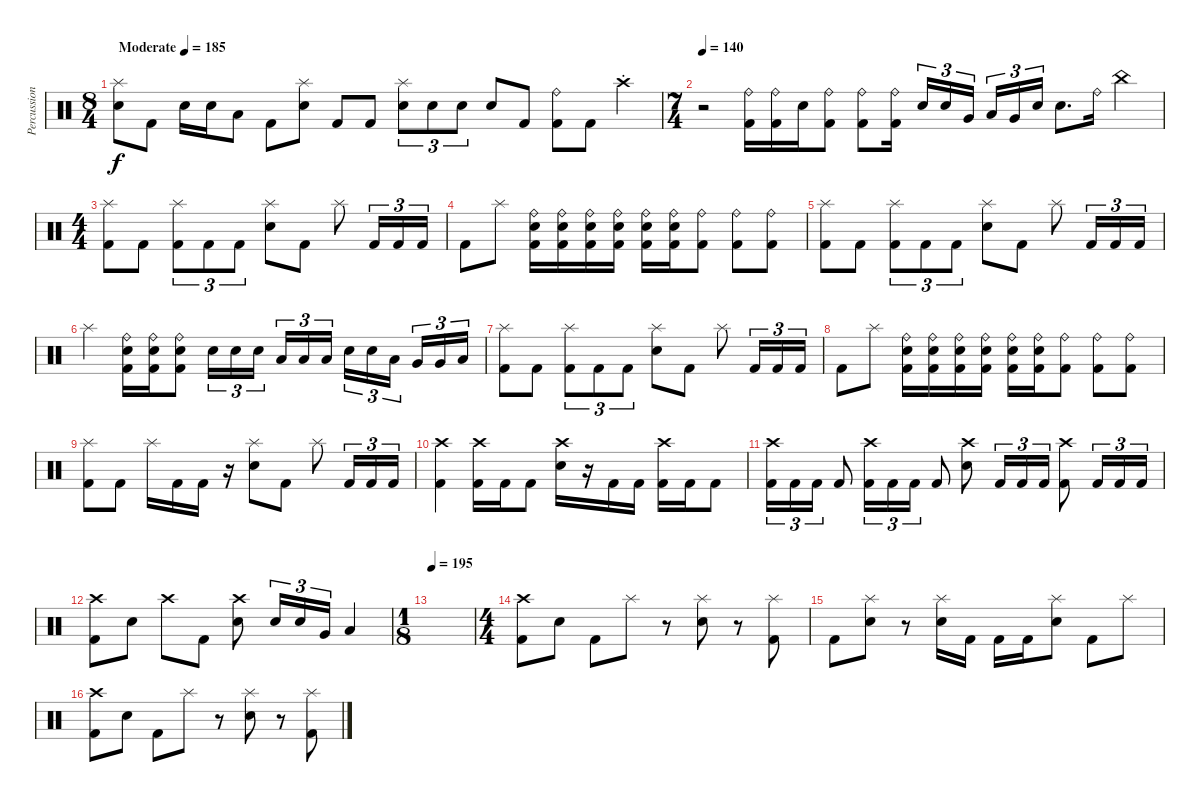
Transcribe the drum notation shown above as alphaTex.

\track ("Percussion" "Percussion") {instrument percussion}
\staff {score}
\articulation defaults
\ts (8 4)
\tempo (185 "Moderate")
\clef neutral
\ks c
("Splash (hit)" "Electric Snare (hit)").8{dy f} "Kick (hit) 2".8 "Electric Snare (hit)".16 "Electric Snare (hit)".16 "Low Floor Tom (hit)".8 "Kick (hit) 2".8 ("Splash (hit)" "Electric Snare (hit)").8 "Kick (hit) 2".8 "Kick (hit) 2".8 ("Splash (hit)" "Electric Snare (hit)").8{tu (3 2)} "Electric Snare (hit)".8{tu (3 2)} "Electric Snare (hit)".8{tu (3 2)} "Electric Snare (hit)".8 "Kick (hit) 2".8 ("Ride (bell)" "Kick (hit) 2").8 "Kick (hit) 2".8 "Crash high (hit)"{st}.4 |
\ts (7 4)
\tempo 140
r.2 ("Ride (bell)" "Kick (hit) 2").16 ("Ride (bell)" "Kick (hit) 2").16 "Electric Snare (hit)".16 ("Ride (bell)" "Kick (hit) 2").8 ("Ride (bell)" "Kick (hit) 2").8 ("Ride (bell)" "Kick (hit) 2").16 "Electric Snare (hit)".16{tu (3 2)} "Electric Snare (hit)".16{tu (3 2)} "Very Low Tom (hit)".16{tu (3 2) beam splitsecondary} "Low Floor Tom (hit)".16{tu (3 2)} "Very Low Tom (hit)".16{tu (3 2)} "Electric Snare (hit)".16{tu (3 2)} "Electric Snare (hit)".8{d} "Ride (bell)".16 "China (hit)".4 |
\ts (4 4)
("Splash (hit)" "Kick (hit) 2").8 "Kick (hit) 2".8 ("Splash (hit)" "Kick (hit) 2").8{tu (3 2)} "Kick (hit) 2".8{tu (3 2)} "Kick (hit) 2".8{tu (3 2)} ("Splash (hit)" "Electric Snare (hit)").8 "Kick (hit) 2".8 "Splash (hit)".8 "Kick (hit) 2".16{tu (3 2)} "Kick (hit) 2".16{tu (3 2)} "Kick (hit) 2".16{tu (3 2)} |
"Kick (hit) 2".8 "Splash (hit)".8 ("Ride (bell)" "Electric Snare (hit)" "Kick (hit) 2").16 ("Ride (bell)" "Electric Snare (hit)" "Kick (hit) 2").16 ("Ride (bell)" "Electric Snare (hit)" "Kick (hit) 2").16 ("Ride (bell)" "Electric Snare (hit)" "Kick (hit) 2").16 ("Ride (bell)" "Electric Snare (hit)" "Kick (hit) 2").16 ("Ride (bell)" "Electric Snare (hit)" "Kick (hit) 2").16 ("Ride (bell)" "Kick (hit) 2").8 ("Ride (bell)" "Kick (hit) 2").8 ("Ride (bell)" "Kick (hit) 2").8 |
("Splash (hit)" "Kick (hit) 2").8 "Kick (hit) 2".8 ("Splash (hit)" "Kick (hit) 2").8{tu (3 2)} "Kick (hit) 2".8{tu (3 2)} "Kick (hit) 2".8{tu (3 2)} ("Splash (hit)" "Electric Snare (hit)").8 "Kick (hit) 2".8 "Splash (hit)".8 "Kick (hit) 2".16{tu (3 2)} "Kick (hit) 2".16{tu (3 2)} "Kick (hit) 2".16{tu (3 2)} |
"Splash (hit)".4 ("Ride (bell)" "Electric Snare (hit)" "Kick (hit) 2").16 ("Ride (bell)" "Electric Snare (hit)" "Kick (hit) 2").16 ("Ride (bell)" "Electric Snare (hit)" "Kick (hit) 2").8 "Electric Snare (hit)".16{tu (3 2)} "Electric Snare (hit)".16{tu (3 2)} "Electric Snare (hit)".16{tu (3 2) beam splitsecondary} "Low Tom (hit)".16{tu (3 2)} "Low Tom (hit)".16{tu (3 2)} "Low Tom (hit)".16{tu (3 2)} "Electric Snare (hit)".16{tu (3 2)} "Electric Snare (hit)".16{tu (3 2)} "Low Tom (hit)".16{tu (3 2) beam splitsecondary} "Very Low Tom (hit)".16{tu (3 2)} "Very Low Tom (hit)".16{tu (3 2)} "Low Floor Tom (hit)".16{tu (3 2)} |
("Splash (hit)" "Kick (hit) 2").8 "Kick (hit) 2".8 ("Splash (hit)" "Kick (hit) 2").8{tu (3 2)} "Kick (hit) 2".8{tu (3 2)} "Kick (hit) 2".8{tu (3 2)} ("Splash (hit)" "Electric Snare (hit)").8 "Kick (hit) 2".8 "Splash (hit)".8 "Kick (hit) 2".16{tu (3 2)} "Kick (hit) 2".16{tu (3 2)} "Kick (hit) 2".16{tu (3 2)} |
"Kick (hit) 2".8 "Splash (hit)".8 ("Ride (bell)" "Electric Snare (hit)" "Kick (hit) 2").16 ("Ride (bell)" "Electric Snare (hit)" "Kick (hit) 2").16 ("Ride (bell)" "Electric Snare (hit)" "Kick (hit) 2").16 ("Ride (bell)" "Electric Snare (hit)" "Kick (hit) 2").16 ("Ride (bell)" "Electric Snare (hit)" "Kick (hit) 2").16 ("Ride (bell)" "Electric Snare (hit)" "Kick (hit) 2").16 ("Ride (bell)" "Kick (hit) 2").8 ("Ride (bell)" "Kick (hit) 2").8 ("Ride (bell)" "Kick (hit) 2").8 |
("Splash (hit)" "Kick (hit) 2").8 "Kick (hit) 2".8 "Splash (hit)".16 "Kick (hit) 2".16 "Kick (hit) 2".16 r.16 ("Splash (hit)" "Electric Snare (hit)").8 "Kick (hit) 2".8 "Splash (hit)".8 "Kick (hit) 2".16{tu (3 2)} "Kick (hit) 2".16{tu (3 2)} "Kick (hit) 2".16{tu (3 2)} |
("Crash high (hit)" "Kick (hit) 2").4 ("Crash high (hit)" "Kick (hit) 2").16 "Kick (hit) 2".16 "Kick (hit) 2".8 ("Crash high (hit)" "Electric Snare (hit)").16 r.16 "Kick (hit) 2".16 "Kick (hit) 2".16 ("Crash high (hit)" "Kick (hit) 2").16 "Kick (hit) 2".16 "Kick (hit) 2".8 |
("Crash high (hit)" "Kick (hit) 2").16{tu (3 2)} "Kick (hit) 2".16{tu (3 2)} "Kick (hit) 2".16{tu (3 2)} "Kick (hit) 2".8 ("Crash high (hit)" "Kick (hit) 2").16{tu (3 2)} "Kick (hit) 2".16{tu (3 2)} "Kick (hit) 2".16{tu (3 2)} "Kick (hit) 2".8 ("Crash high (hit)" "Electric Snare (hit)").8 "Kick (hit) 2".16{tu (3 2)} "Kick (hit) 2".16{tu (3 2)} "Kick (hit) 2".16{tu (3 2)} ("Crash high (hit)" "Kick (hit) 2").8 "Kick (hit) 2".16{tu (3 2)} "Kick (hit) 2".16{tu (3 2)} "Kick (hit) 2".16{tu (3 2)} |
("Crash high (hit)" "Kick (hit) 2").8 "Electric Snare (hit)".8 "Crash high (hit)".8 "Kick (hit) 2".8 ("Crash high (hit)" "Electric Snare (hit)").8 "Electric Snare (hit)".16{tu (3 2)} "Electric Snare (hit)".16{tu (3 2)} "Very Low Tom (hit)".16{tu (3 2)} "Low Floor Tom (hit)".4 |
\ts (1 8)
\tempo 195
|
\ts (4 4)
("Crash high (hit)" "Kick (hit) 2").8 "Electric Snare (hit)".8 "Kick (hit) 2".8 "Splash (hit)".8 r.8 ("Splash (hit)" "Electric Snare (hit)").8 r.8 ("Splash (hit)" "Kick (hit) 2").8 |
"Kick (hit) 2".8 ("Splash (hit)" "Electric Snare (hit)").8 r.8 ("Splash (hit)" "Electric Snare (hit)").16 "Kick (hit) 2".16 "Kick (hit) 2".16 "Kick (hit) 2".16 ("Splash (hit)" "Electric Snare (hit)").8 "Kick (hit) 2".8 "Splash (hit)".8 |
("Crash high (hit)" "Kick (hit) 2").8 "Electric Snare (hit)".8 "Kick (hit) 2".8 "Splash (hit)".8 r.8 ("Splash (hit)" "Electric Snare (hit)").8 r.8 ("Splash (hit)" "Kick (hit) 2").8
